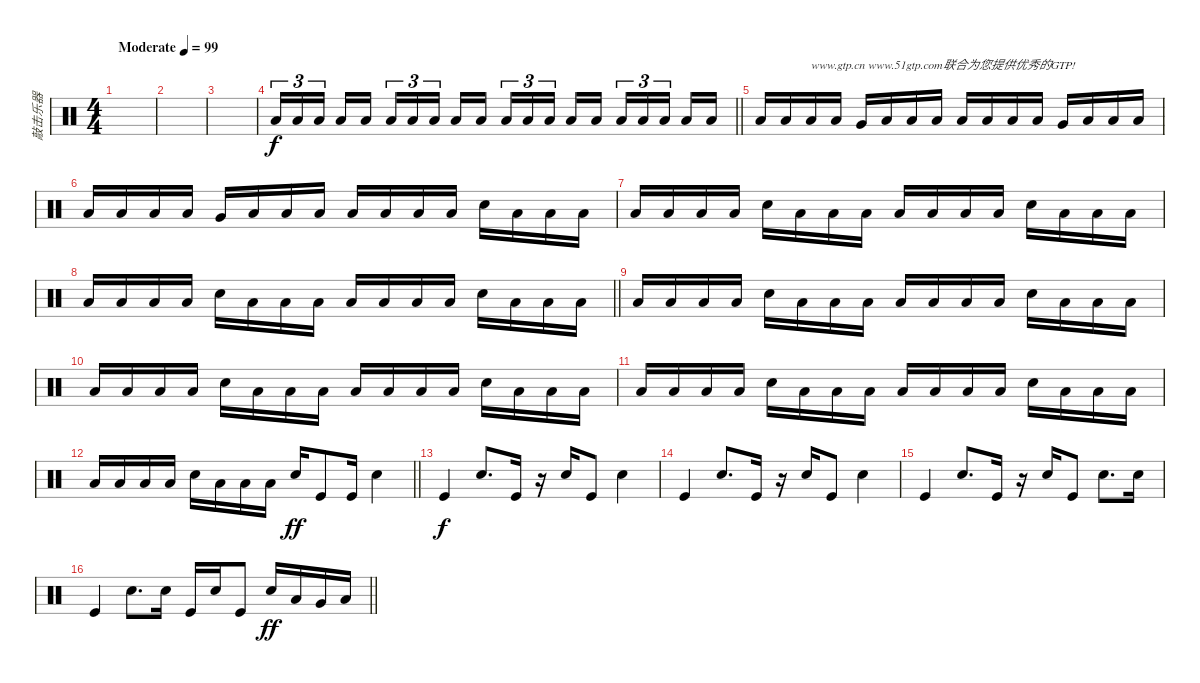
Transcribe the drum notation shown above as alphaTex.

\track ("敲击乐器" "敲击乐器") {instrument percussion}
\staff {score}
\articulation defaults
\ts (4 4)
\tempo (99 "Moderate")
\clef neutral
\ks c
|
|
|
\barLineRight lightlight "Low Floor Tom (hit)".16{tu (3 2)} "Low Floor Tom (hit)".16{tu (3 2)} "Low Floor Tom (hit)".16{tu (3 2) beam splitsecondary} "Low Floor Tom (hit)".16 "Low Floor Tom (hit)".16 "Low Floor Tom (hit)".16{tu (3 2)} "Low Floor Tom (hit)".16{tu (3 2)} "Low Floor Tom (hit)".16{tu (3 2) beam splitsecondary} "Low Floor Tom (hit)".16 "Low Floor Tom (hit)".16 "Low Floor Tom (hit)".16{tu (3 2)} "Low Floor Tom (hit)".16{tu (3 2)} "Low Floor Tom (hit)".16{tu (3 2) beam splitsecondary} "Low Floor Tom (hit)".16 "Low Floor Tom (hit)".16 "Low Floor Tom (hit)".16{tu (3 2)} "Low Floor Tom (hit)".16{tu (3 2)} "Low Floor Tom (hit)".16{tu (3 2) beam splitsecondary} "Low Floor Tom (hit)".16 "Low Floor Tom (hit)".16
|
"Low Floor Tom (hit)".16 "Low Floor Tom (hit)".16 "Low Floor Tom (hit)".16{txt "www.gtp.cn www.51gtp.com联合为您提供优秀的GTP!"} "Low Floor Tom (hit)".16 "Very Low Tom (hit)".16 "Low Floor Tom (hit)".16 "Low Floor Tom (hit)".16 "Low Floor Tom (hit)".16 "Low Floor Tom (hit)".16 "Low Floor Tom (hit)".16 "Low Floor Tom (hit)".16 "Low Floor Tom (hit)".16 "Very Low Tom (hit)".16 "Low Floor Tom (hit)".16 "Low Floor Tom (hit)".16 "Low Floor Tom (hit)".16 |
"Low Floor Tom (hit)".16 "Low Floor Tom (hit)".16 "Low Floor Tom (hit)".16 "Low Floor Tom (hit)".16 "Very Low Tom (hit)".16 "Low Floor Tom (hit)".16 "Low Floor Tom (hit)".16 "Low Floor Tom (hit)".16 "Low Floor Tom (hit)".16 "Low Floor Tom (hit)".16 "Low Floor Tom (hit)".16 "Low Floor Tom (hit)".16 "Snare (hit) 2".16 "Low Floor Tom (hit)".16 "Low Floor Tom (hit)".16 "Low Floor Tom (hit)".16 |
"Low Floor Tom (hit)".16 "Low Floor Tom (hit)".16 "Low Floor Tom (hit)".16 "Low Floor Tom (hit)".16 "Snare (hit) 2".16 "Low Floor Tom (hit)".16 "Low Floor Tom (hit)".16 "Low Floor Tom (hit)".16 "Low Floor Tom (hit)".16 "Low Floor Tom (hit)".16 "Low Floor Tom (hit)".16 "Low Floor Tom (hit)".16 "Snare (hit) 2".16 "Low Floor Tom (hit)".16 "Low Floor Tom (hit)".16 "Low Floor Tom (hit)".16 |
\barLineRight lightlight "Low Floor Tom (hit)".16 "Low Floor Tom (hit)".16 "Low Floor Tom (hit)".16 "Low Floor Tom (hit)".16 "Snare (hit) 2".16 "Low Floor Tom (hit)".16 "Low Floor Tom (hit)".16 "Low Floor Tom (hit)".16 "Low Floor Tom (hit)".16 "Low Floor Tom (hit)".16 "Low Floor Tom (hit)".16 "Low Floor Tom (hit)".16 "Snare (hit) 2".16 "Low Floor Tom (hit)".16 "Low Floor Tom (hit)".16 "Low Floor Tom (hit)".16
|
"Low Floor Tom (hit)".16 "Low Floor Tom (hit)".16 "Low Floor Tom (hit)".16 "Low Floor Tom (hit)".16 "Snare (hit) 2".16 "Low Floor Tom (hit)".16 "Low Floor Tom (hit)".16 "Low Floor Tom (hit)".16 "Low Floor Tom (hit)".16 "Low Floor Tom (hit)".16 "Low Floor Tom (hit)".16 "Low Floor Tom (hit)".16 "Snare (hit) 2".16 "Low Floor Tom (hit)".16 "Low Floor Tom (hit)".16 "Low Floor Tom (hit)".16 |
"Low Floor Tom (hit)".16 "Low Floor Tom (hit)".16 "Low Floor Tom (hit)".16 "Low Floor Tom (hit)".16 "Snare (hit) 2".16 "Low Floor Tom (hit)".16 "Low Floor Tom (hit)".16 "Low Floor Tom (hit)".16 "Low Floor Tom (hit)".16 "Low Floor Tom (hit)".16 "Low Floor Tom (hit)".16 "Low Floor Tom (hit)".16 "Snare (hit) 2".16 "Low Floor Tom (hit)".16 "Low Floor Tom (hit)".16 "Low Floor Tom (hit)".16 |
"Low Floor Tom (hit)".16 "Low Floor Tom (hit)".16 "Low Floor Tom (hit)".16 "Low Floor Tom (hit)".16 "Snare (hit) 2".16 "Low Floor Tom (hit)".16 "Low Floor Tom (hit)".16 "Low Floor Tom (hit)".16 "Low Floor Tom (hit)".16 "Low Floor Tom (hit)".16 "Low Floor Tom (hit)".16 "Low Floor Tom (hit)".16 "Snare (hit) 2".16 "Low Floor Tom (hit)".16 "Low Floor Tom (hit)".16 "Low Floor Tom (hit)".16 |
\barLineRight lightlight "Low Floor Tom (hit)".16 "Low Floor Tom (hit)".16 "Low Floor Tom (hit)".16 "Low Floor Tom (hit)".16 "Snare (hit) 2".16 "Low Floor Tom (hit)".16 "Low Floor Tom (hit)".16 "Low Floor Tom (hit)".16 "Snare (hit) 2".16{dy ff} "Kick (hit)".8 "Kick (hit)".16 "Snare (hit) 2".4
|
"Kick (hit)".4{dy f} "Snare (hit) 2".8{d} "Kick (hit)".16 r.16 "Snare (hit) 2".16 "Kick (hit)".8 "Snare (hit) 2".4 |
"Kick (hit)".4 "Snare (hit) 2".8{d} "Kick (hit)".16 r.16 "Snare (hit) 2".16 "Kick (hit)".8 "Snare (hit) 2".4 |
"Kick (hit)".4 "Snare (hit) 2".8{d} "Kick (hit)".16 r.16 "Snare (hit) 2".16 "Kick (hit)".8 "Snare (hit) 2".8{d} "Snare (hit) 2".16 |
\barLineRight lightlight "Kick (hit)".4 "Snare (hit) 2".8{d} "Snare (hit) 2".16 "Kick (hit)".16 "Snare (hit) 2".16 "Kick (hit)".8 "Snare (hit) 2".16{dy ff} "Low Tom (hit)".16 "Very Low Tom (hit)".16 "Low Floor Tom (hit)".16
